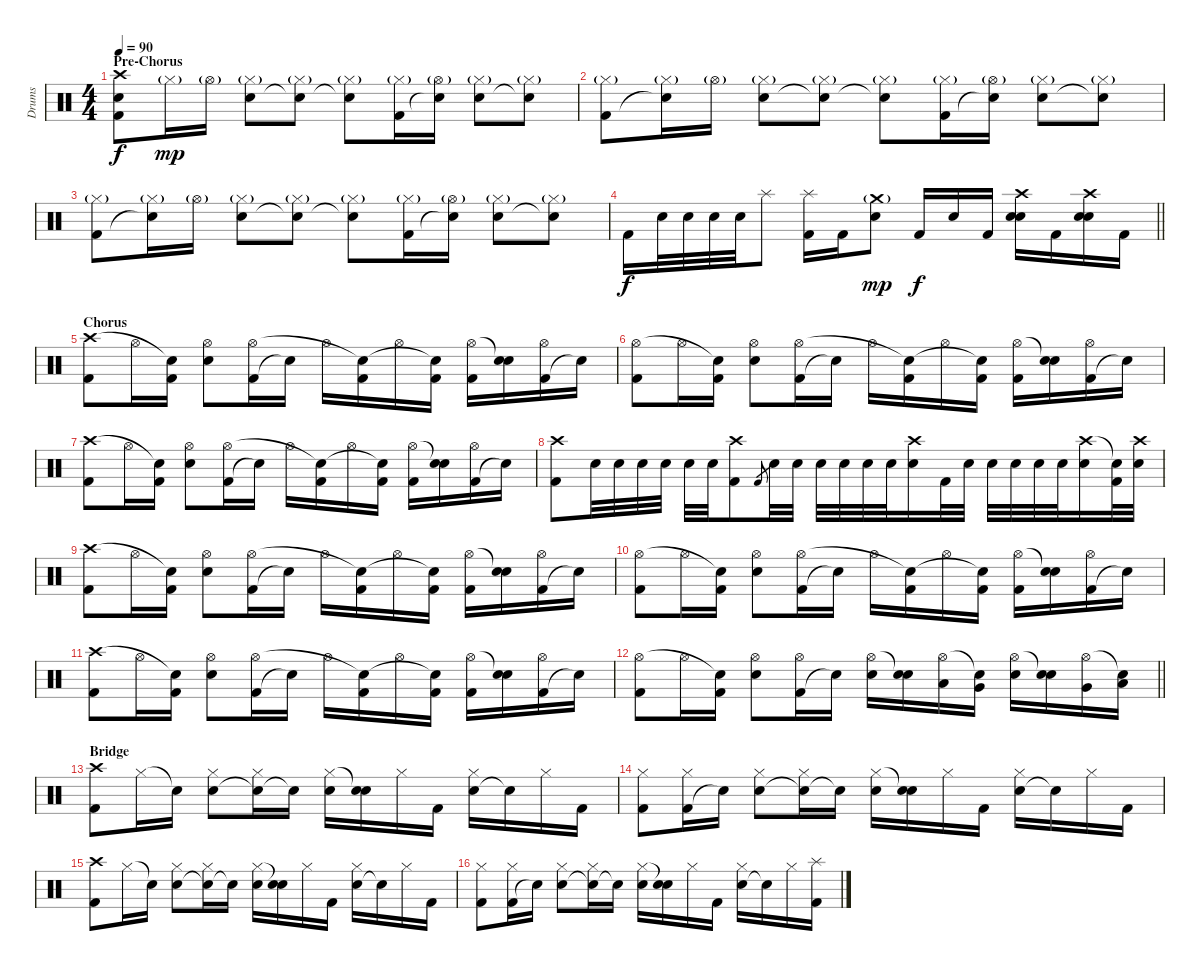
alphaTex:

\track ("Drums" "Drums") {instrument percussion}
\staff {score}
\articulation defaults
\ts (4 4)
\section ("" "Pre-Chorus")
\tempo 90
\clef neutral
\ks c
("Kick (hit) 2" "Electric Snare (hit)" "Crash high (hit)").8{dy f} "Hi-Hat (closed)"{g}.16{dy mp} "Hi-Hat (open)"{g}.16 ("Snare (hit) 2" "Hi-Hat (closed)"{g}).8 ("Snare (hit)"{t} "Hi-Hat (closed)"{g}).8 ("Snare (hit)"{t} "Hi-Hat (closed)"{g}).8 ("Kick (hit) 2" "Hi-Hat (closed)"{g}).16 ("Snare (hit)"{t} "Hi-Hat (open)"{g}).16 ("Snare (hit) 2" "Hi-Hat (closed)"{g}).8 ("Snare (hit)"{t} "Hi-Hat (closed)"{g}).8 |
("Kick (hit) 2" "Hi-Hat (closed)"{g}).8 ("Snare (hit)"{t} "Hi-Hat (closed)"{g}).16 "Hi-Hat (open)"{g}.16 ("Snare (hit) 2" "Hi-Hat (closed)"{g}).8 ("Snare (hit)"{t} "Hi-Hat (closed)"{g}).8 ("Snare (hit)"{t} "Hi-Hat (closed)"{g}).8 ("Kick (hit) 2" "Hi-Hat (closed)"{g}).16 ("Snare (hit)"{t} "Hi-Hat (open)"{g}).16 ("Snare (hit) 2" "Hi-Hat (closed)"{g}).8 ("Snare (hit)"{t} "Hi-Hat (closed)"{g}).8 |
("Kick (hit) 2" "Hi-Hat (closed)"{g}).8 ("Snare (hit)"{t} "Hi-Hat (closed)"{g}).16 "Hi-Hat (open)"{g}.16 ("Snare (hit) 2" "Hi-Hat (closed)"{g}).8 ("Snare (hit)"{t} "Hi-Hat (closed)"{g}).8 ("Snare (hit)"{t} "Hi-Hat (closed)"{g}).8 ("Kick (hit) 2" "Hi-Hat (closed)"{g}).16 ("Snare (hit)"{t} "Hi-Hat (open)"{g}).16 ("Snare (hit) 2" "Hi-Hat (closed)"{g}).8 ("Snare (hit)"{t} "Hi-Hat (closed)"{g}).8 |
\barLineRight lightlight "Kick (hit) 2".16{dy f} "Snare (hit) 2".32 "Snare (hit) 2".32 "Snare (hit) 2".32 "Snare (hit) 2".32 "Splash (hit)".8
("Kick (hit) 2" "Splash (hit)").16 "Kick (hit) 2".16 ("Electric Snare (hit)" "Crash medium (hit)"{g}).8{dy mp} "Kick (hit) 2".16{dy f} "Snare (hit) 2".16 "Kick (hit) 2".16 ("Snare (hit) 2" "Snare (hit) 2" "Crash high (hit)").16 "Kick (hit) 2".16 ("Snare (hit) 2" "Snare (hit) 2" "Crash high (hit)").16 "Kick (hit) 2".16 |
\section ("" "Chorus")
("Kick (hit) 2" "Crash high (hit)").8 "Hi-Hat (open)".16 ("Kick (hit) 2" "Snare (hit)"{t}).16 ("Snare (hit) 2" "Hi-Hat (open)").8 ("Kick (hit) 2" "Hi-Hat (open)").16 "Snare (hit)"{t}.16 "Hi-Hat (open)".16 ("Kick (hit) 2" "Snare (hit)"{t}).16 "Hi-Hat (open)".16 ("Kick (hit) 2" "Snare (hit)"{t}).16 ("Kick (hit) 2" "Hi-Hat (open)").16 ("Snare (hit) 2" "Snare (hit)"{t}).16 ("Kick (hit) 2" "Hi-Hat (open)").16 "Snare (hit)"{t}.16 |
("Kick (hit) 2" "Hi-Hat (open)").8 "Hi-Hat (open)".16 ("Kick (hit) 2" "Snare (hit)"{t}).16 ("Snare (hit) 2" "Hi-Hat (open)").8 ("Kick (hit) 2" "Hi-Hat (open)").16 "Snare (hit)"{t}.16 "Hi-Hat (open)".16 ("Kick (hit) 2" "Snare (hit)"{t}).16 "Hi-Hat (open)".16 ("Kick (hit) 2" "Snare (hit)"{t}).16 ("Kick (hit) 2" "Hi-Hat (open)").16 ("Snare (hit) 2" "Snare (hit)"{t}).16 ("Kick (hit) 2" "Hi-Hat (open)").16 "Snare (hit)"{t}.16 |
("Kick (hit) 2" "Crash high (hit)").8 "Hi-Hat (open)".16 ("Kick (hit) 2" "Snare (hit)"{t}).16 ("Snare (hit) 2" "Hi-Hat (open)").8 ("Kick (hit) 2" "Hi-Hat (open)").16 "Snare (hit)"{t}.16 "Hi-Hat (open)".16 ("Kick (hit) 2" "Snare (hit)"{t}).16 "Hi-Hat (open)".16 ("Kick (hit) 2" "Snare (hit)"{t}).16 ("Kick (hit) 2" "Hi-Hat (open)").16 ("Snare (hit) 2" "Snare (hit)"{t}).16 ("Kick (hit) 2" "Hi-Hat (open)").16 "Snare (hit)"{t}.16 |
("Kick (hit) 2" "Crash high (hit)").8 "Snare (hit) 2".32 "Snare (hit) 2".32 "Snare (hit) 2".32 "Snare (hit) 2".32 "Snare (hit) 2".32 "Snare (hit) 2".32 ("Kick (hit) 2" "Crash high (hit)").8 "Kick (hit) 2".8{gr} "Snare (hit) 2".32 "Snare (hit) 2".32 "Snare (hit) 2".32 "Snare (hit) 2".32 "Snare (hit) 2".32 "Snare (hit) 2".32 ("Snare (hit) 2" "Crash high (hit)").16 "Kick (hit) 2".32 "Snare (hit) 2".32 "Snare (hit) 2".32 "Snare (hit) 2".32 "Snare (hit) 2".32 "Snare (hit) 2".32 ("Snare (hit) 2" "Crash high (hit)").16 ("Kick (hit) 2" "Snare (hit)"{t}).32 ("Snare (hit) 2" "Crash high (hit)").32 |
("Kick (hit) 2" "Crash high (hit)").8 "Hi-Hat (open)".16 ("Kick (hit) 2" "Snare (hit)"{t}).16 ("Snare (hit) 2" "Hi-Hat (open)").8 ("Kick (hit) 2" "Hi-Hat (open)").16 "Snare (hit)"{t}.16 "Hi-Hat (open)".16 ("Kick (hit) 2" "Snare (hit)"{t}).16 "Hi-Hat (open)".16 ("Kick (hit) 2" "Snare (hit)"{t}).16 ("Kick (hit) 2" "Hi-Hat (open)").16 ("Snare (hit) 2" "Snare (hit)"{t}).16 ("Kick (hit) 2" "Hi-Hat (open)").16 "Snare (hit)"{t}.16 |
("Kick (hit) 2" "Hi-Hat (open)").8 "Hi-Hat (open)".16 ("Kick (hit) 2" "Snare (hit)"{t}).16 ("Snare (hit) 2" "Hi-Hat (open)").8 ("Kick (hit) 2" "Hi-Hat (open)").16 "Snare (hit)"{t}.16 "Hi-Hat (open)".16 ("Kick (hit) 2" "Snare (hit)"{t}).16 "Hi-Hat (open)".16 ("Kick (hit) 2" "Snare (hit)"{t}).16 ("Kick (hit) 2" "Hi-Hat (open)").16 ("Snare (hit) 2" "Snare (hit)"{t}).16 ("Kick (hit) 2" "Hi-Hat (open)").16 "Snare (hit)"{t}.16 |
("Kick (hit) 2" "Crash high (hit)").8 "Hi-Hat (open)".16 ("Kick (hit) 2" "Snare (hit)"{t}).16 ("Snare (hit) 2" "Hi-Hat (open)").8 ("Kick (hit) 2" "Hi-Hat (open)").16 "Snare (hit)"{t}.16 "Hi-Hat (open)".16 ("Kick (hit) 2" "Snare (hit)"{t}).16 "Hi-Hat (open)".16 ("Kick (hit) 2" "Snare (hit)"{t}).16 ("Kick (hit) 2" "Hi-Hat (open)").16 ("Snare (hit) 2" "Snare (hit)"{t}).16 ("Kick (hit) 2" "Hi-Hat (open)").16 "Snare (hit)"{t}.16 |
\barLineRight lightlight
("Kick (hit) 2" "Hi-Hat (open)").8 "Hi-Hat (open)".16 ("Kick (hit) 2" "Snare (hit)"{t}).16 ("Snare (hit) 2" "Hi-Hat (open)").8 ("Kick (hit) 2" "Hi-Hat (open)").16 "Snare (hit)"{t}.16 ("Snare (hit) 2" "Hi-Hat (open)").16 ("Snare (hit) 2" "Snare (hit)"{t}).16 ("Low Tom (hit)" "Hi-Hat (open)").16 ("Very Low Tom (hit)" "Snare (hit)"{t}).16 ("Snare (hit) 2" "Hi-Hat (open)").16 ("Snare (hit) 2" "Snare (hit)"{t}).16 ("Very Low Tom (hit)" "Hi-Hat (open)").16 ("Low Floor Tom (hit)" "Snare (hit)"{t}).16 |
\section ("" "Bridge")
("Kick (hit) 2" "Crash high (hit)").8 "Hi-Hat (closed)".16 "Snare (hit)"{t}.16 ("Snare (hit) 2" "Hi-Hat (closed)").8 ("Snare (hit)"{t} "Hi-Hat (closed)").16 "Snare (hit)"{t}.16 ("Snare (hit) 2" "Hi-Hat (closed)").16 ("Snare (hit) 2" "Snare (hit)"{t}).16 "Hi-Hat (closed)".16 "Kick (hit) 2".16 ("Snare (hit) 2" "Hi-Hat (closed)").16 "Snare (hit)"{t}.16 "Hi-Hat (closed)".16 "Kick (hit) 2".16 |
("Kick (hit) 2" "Hi-Hat (closed)").8 ("Kick (hit) 2" "Hi-Hat (closed)").16 "Snare (hit)"{t}.16 ("Snare (hit) 2" "Hi-Hat (closed)").8 ("Snare (hit)"{t} "Hi-Hat (closed)").16 "Snare (hit)"{t}.16 ("Snare (hit) 2" "Hi-Hat (closed)").16 ("Snare (hit) 2" "Snare (hit)"{t}).16 "Hi-Hat (closed)".16 "Kick (hit) 2".16 ("Snare (hit) 2" "Hi-Hat (closed)").16 "Snare (hit)"{t}.16 "Hi-Hat (closed)".16 "Kick (hit) 2".16 |
("Kick (hit) 2" "Crash high (hit)").8 "Hi-Hat (closed)".16 "Snare (hit)"{t}.16 ("Snare (hit) 2" "Hi-Hat (closed)").8 ("Snare (hit)"{t} "Hi-Hat (closed)").16 "Snare (hit)"{t}.16 ("Snare (hit) 2" "Hi-Hat (closed)").16 ("Snare (hit) 2" "Snare (hit)"{t}).16 "Hi-Hat (closed)".16 "Kick (hit) 2".16 ("Snare (hit) 2" "Hi-Hat (closed)").16 "Snare (hit)"{t}.16 "Hi-Hat (closed)".16 "Kick (hit) 2".16 |
("Kick (hit) 2" "Hi-Hat (closed)").8 ("Kick (hit) 2" "Hi-Hat (closed)").16 "Snare (hit)"{t}.16 ("Snare (hit) 2" "Hi-Hat (closed)").8 ("Snare (hit)"{t} "Hi-Hat (closed)").16 "Snare (hit)"{t}.16 ("Snare (hit) 2" "Hi-Hat (closed)").16 ("Snare (hit) 2" "Snare (hit)"{t}).16 "Hi-Hat (closed)".16 "Kick (hit) 2".16 ("Snare (hit) 2" "Hi-Hat (closed)").16 "Snare (hit)"{t}.16 "Hi-Hat (closed)".16 ("Kick (hit) 2" "Splash (hit)").16
